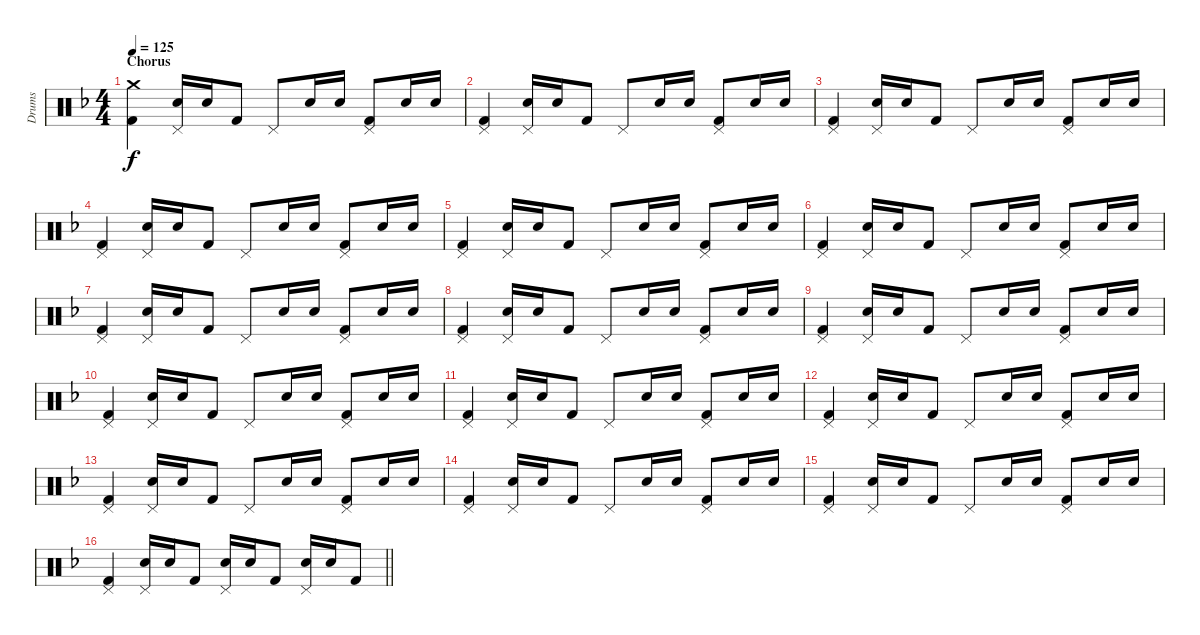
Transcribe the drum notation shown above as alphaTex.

\track ("Drums" "Drums") {instrument percussion}
\staff {score}
\articulation defaults
\ts (4 4)
\section ("" "Chorus")
\tempo 125
\clef neutral
\ks f
("Crash medium (hit)" "Kick (hit) 2").4{dy f} ("Pedal Hi-Hat (hit)" "Snare (hit) 2").16 "Snare (hit) 2".16 "Kick (hit) 2".8 "Pedal Hi-Hat (hit)".8 "Snare (hit) 2".16 "Snare (hit) 2".16 ("Pedal Hi-Hat (hit)" "Kick (hit) 2").8 "Snare (hit) 2".16 "Snare (hit) 2".16 |
("Pedal Hi-Hat (hit)" "Kick (hit) 2").4 ("Pedal Hi-Hat (hit)" "Snare (hit) 2").16 "Snare (hit) 2".16 "Kick (hit) 2".8 "Pedal Hi-Hat (hit)".8 "Snare (hit) 2".16 "Snare (hit) 2".16 ("Pedal Hi-Hat (hit)" "Kick (hit) 2").8 "Snare (hit) 2".16 "Snare (hit) 2".16 |
("Pedal Hi-Hat (hit)" "Kick (hit) 2").4 ("Pedal Hi-Hat (hit)" "Snare (hit) 2").16 "Snare (hit) 2".16 "Kick (hit) 2".8 "Pedal Hi-Hat (hit)".8 "Snare (hit) 2".16 "Snare (hit) 2".16 ("Pedal Hi-Hat (hit)" "Kick (hit) 2").8 "Snare (hit) 2".16 "Snare (hit) 2".16 |
("Pedal Hi-Hat (hit)" "Kick (hit) 2").4 ("Pedal Hi-Hat (hit)" "Snare (hit) 2").16 "Snare (hit) 2".16 "Kick (hit) 2".8 "Pedal Hi-Hat (hit)".8 "Snare (hit) 2".16 "Snare (hit) 2".16 ("Pedal Hi-Hat (hit)" "Kick (hit) 2").8 "Snare (hit) 2".16 "Snare (hit) 2".16 |
("Pedal Hi-Hat (hit)" "Kick (hit) 2").4 ("Pedal Hi-Hat (hit)" "Snare (hit) 2").16 "Snare (hit) 2".16 "Kick (hit) 2".8 "Pedal Hi-Hat (hit)".8 "Snare (hit) 2".16 "Snare (hit) 2".16 ("Pedal Hi-Hat (hit)" "Kick (hit) 2").8 "Snare (hit) 2".16 "Snare (hit) 2".16 |
("Pedal Hi-Hat (hit)" "Kick (hit) 2").4 ("Pedal Hi-Hat (hit)" "Snare (hit) 2").16 "Snare (hit) 2".16 "Kick (hit) 2".8 "Pedal Hi-Hat (hit)".8 "Snare (hit) 2".16 "Snare (hit) 2".16 ("Pedal Hi-Hat (hit)" "Kick (hit) 2").8 "Snare (hit) 2".16 "Snare (hit) 2".16 |
("Pedal Hi-Hat (hit)" "Kick (hit) 2").4 ("Pedal Hi-Hat (hit)" "Snare (hit) 2").16 "Snare (hit) 2".16 "Kick (hit) 2".8 "Pedal Hi-Hat (hit)".8 "Snare (hit) 2".16 "Snare (hit) 2".16 ("Pedal Hi-Hat (hit)" "Kick (hit) 2").8 "Snare (hit) 2".16 "Snare (hit) 2".16 |
("Pedal Hi-Hat (hit)" "Kick (hit) 2").4 ("Pedal Hi-Hat (hit)" "Snare (hit) 2").16 "Snare (hit) 2".16 "Kick (hit) 2".8 "Pedal Hi-Hat (hit)".8 "Snare (hit) 2".16 "Snare (hit) 2".16 ("Pedal Hi-Hat (hit)" "Kick (hit) 2").8 "Snare (hit) 2".16 "Snare (hit) 2".16 |
("Pedal Hi-Hat (hit)" "Kick (hit) 2").4 ("Pedal Hi-Hat (hit)" "Snare (hit) 2").16 "Snare (hit) 2".16 "Kick (hit) 2".8 "Pedal Hi-Hat (hit)".8 "Snare (hit) 2".16 "Snare (hit) 2".16 ("Pedal Hi-Hat (hit)" "Kick (hit) 2").8 "Snare (hit) 2".16 "Snare (hit) 2".16 |
("Pedal Hi-Hat (hit)" "Kick (hit) 2").4 ("Pedal Hi-Hat (hit)" "Snare (hit) 2").16 "Snare (hit) 2".16 "Kick (hit) 2".8 "Pedal Hi-Hat (hit)".8 "Snare (hit) 2".16 "Snare (hit) 2".16 ("Pedal Hi-Hat (hit)" "Kick (hit) 2").8 "Snare (hit) 2".16 "Snare (hit) 2".16 |
("Pedal Hi-Hat (hit)" "Kick (hit) 2").4 ("Pedal Hi-Hat (hit)" "Snare (hit) 2").16 "Snare (hit) 2".16 "Kick (hit) 2".8 "Pedal Hi-Hat (hit)".8 "Snare (hit) 2".16 "Snare (hit) 2".16 ("Pedal Hi-Hat (hit)" "Kick (hit) 2").8 "Snare (hit) 2".16 "Snare (hit) 2".16 |
("Pedal Hi-Hat (hit)" "Kick (hit) 2").4 ("Pedal Hi-Hat (hit)" "Snare (hit) 2").16 "Snare (hit) 2".16 "Kick (hit) 2".8 "Pedal Hi-Hat (hit)".8 "Snare (hit) 2".16 "Snare (hit) 2".16 ("Pedal Hi-Hat (hit)" "Kick (hit) 2").8 "Snare (hit) 2".16 "Snare (hit) 2".16 |
("Pedal Hi-Hat (hit)" "Kick (hit) 2").4 ("Pedal Hi-Hat (hit)" "Snare (hit) 2").16 "Snare (hit) 2".16 "Kick (hit) 2".8 "Pedal Hi-Hat (hit)".8 "Snare (hit) 2".16 "Snare (hit) 2".16 ("Pedal Hi-Hat (hit)" "Kick (hit) 2").8 "Snare (hit) 2".16 "Snare (hit) 2".16 |
("Pedal Hi-Hat (hit)" "Kick (hit) 2").4 ("Pedal Hi-Hat (hit)" "Snare (hit) 2").16 "Snare (hit) 2".16 "Kick (hit) 2".8 "Pedal Hi-Hat (hit)".8 "Snare (hit) 2".16 "Snare (hit) 2".16 ("Pedal Hi-Hat (hit)" "Kick (hit) 2").8 "Snare (hit) 2".16 "Snare (hit) 2".16 |
("Pedal Hi-Hat (hit)" "Kick (hit) 2").4 ("Pedal Hi-Hat (hit)" "Snare (hit) 2").16 "Snare (hit) 2".16 "Kick (hit) 2".8 "Pedal Hi-Hat (hit)".8 "Snare (hit) 2".16 "Snare (hit) 2".16 ("Pedal Hi-Hat (hit)" "Kick (hit) 2").8 "Snare (hit) 2".16 "Snare (hit) 2".16 |
\barLineRight lightlight
("Pedal Hi-Hat (hit)" "Kick (hit) 2").4 ("Pedal Hi-Hat (hit)" "Snare (hit) 2").16 "Snare (hit) 2".16 "Kick (hit) 2".8 ("Pedal Hi-Hat (hit)" "Snare (hit) 2").16 "Snare (hit) 2".16 "Kick (hit) 2".8 ("Pedal Hi-Hat (hit)" "Snare (hit) 2").16 "Snare (hit) 2".16 "Kick (hit) 2".8
